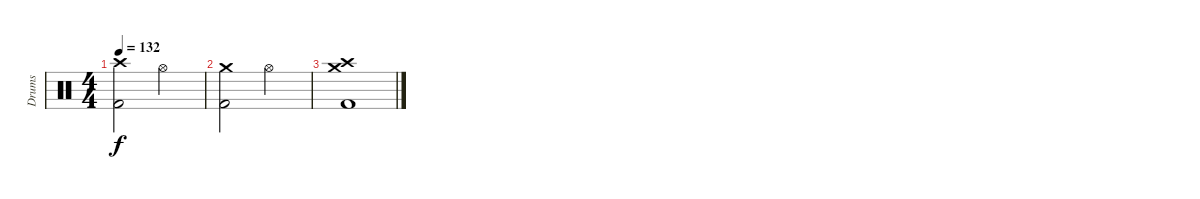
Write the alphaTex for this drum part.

\track ("Drums" "Drums") {instrument percussion}
\staff {score}
\articulation defaults
\ts (4 4)
\tempo 132
\clef neutral
\ks c
("Crash high (hit)" "Kick (hit) 2").2{dy f} "Hi-Hat (open)".2 |
("Crash medium (hit)" "Kick (hit) 2").2 "Hi-Hat (open)".2 |
("Crash medium (hit)" "Crash high (hit)" "Kick (hit) 2").1
